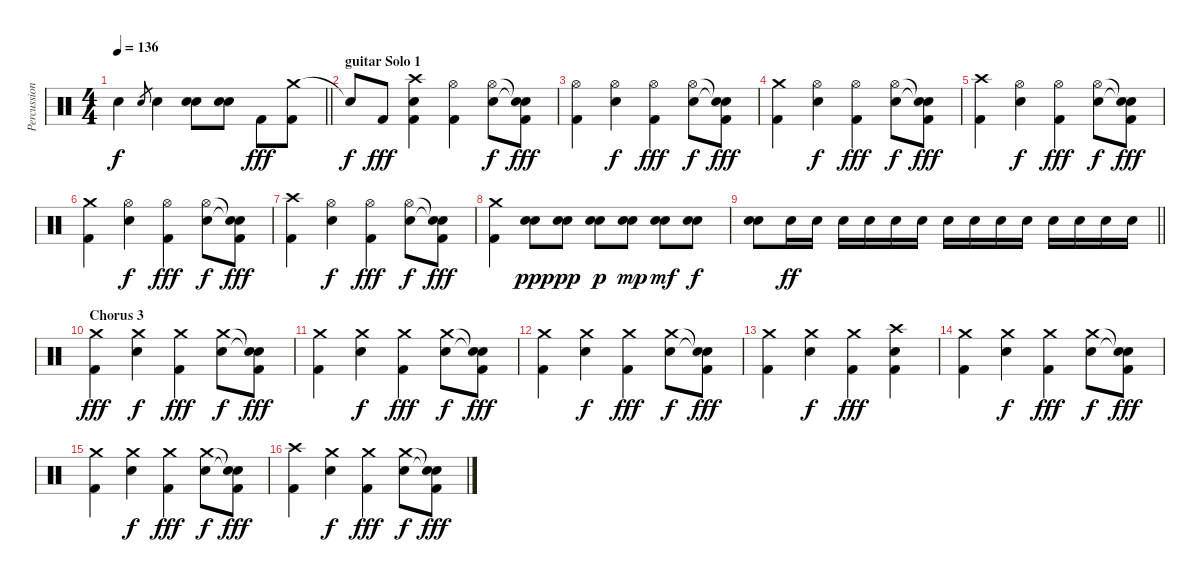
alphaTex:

\track ("Percussion" "Percussion") {instrument percussion}
\staff {score}
\articulation defaults
\ts (4 4)
\tempo 136
\clef neutral
\barLineRight lightlight
\ks c "Snare (hit)"{t}.4{dy f} "Electric Snare (hit)".8{gr} "Electric Snare (hit)".4
("Electric Snare (hit)" "Electric Snare (hit)").8 ("Electric Snare (hit)" "Electric Snare (hit)").8 "Kick (hit) 2".8{dy fff} ("Crash medium (hit)" "Kick (hit) 2").8 |
\section ("" "guitar Solo 1")
"Snare (hit)"{t}.8{dy f} "Kick (hit) 2".8{dy fff} ("Crash high (hit)" "Electric Snare (hit)" "Kick (hit) 2").4 ("Hi-Hat (open)" "Kick (hit) 2").4 ("Hi-Hat (open)" "Electric Snare (hit)").8{dy f} ("Snare (hit)"{t} "Snare (hit)"{t} "Kick (hit) 2").8{dy fff} |
("Hi-Hat (open)" "Kick (hit) 2").4 ("Hi-Hat (open)" "Electric Snare (hit)").4{dy f} ("Hi-Hat (open)" "Kick (hit) 2").4{dy fff} ("Hi-Hat (open)" "Electric Snare (hit)").8{dy f} ("Snare (hit)"{t} "Snare (hit)"{t} "Kick (hit) 2").8{dy fff} |
("Crash medium (hit)" "Kick (hit) 2").4 ("Hi-Hat (open)" "Electric Snare (hit)").4{dy f} ("Hi-Hat (open)" "Kick (hit) 2").4{dy fff} ("Hi-Hat (open)" "Electric Snare (hit)").8{dy f} ("Snare (hit)"{t} "Snare (hit)"{t} "Kick (hit) 2").8{dy fff} |
("Crash high (hit)" "Kick (hit) 2").4 ("Hi-Hat (open)" "Electric Snare (hit)").4{dy f} ("Hi-Hat (open)" "Kick (hit) 2").4{dy fff} ("Hi-Hat (open)" "Electric Snare (hit)").8{dy f} ("Snare (hit)"{t} "Snare (hit)"{t} "Kick (hit) 2").8{dy fff} |
("Crash medium (hit)" "Kick (hit) 2").4 ("Hi-Hat (open)" "Electric Snare (hit)").4{dy f} ("Hi-Hat (open)" "Kick (hit) 2").4{dy fff} ("Hi-Hat (open)" "Electric Snare (hit)").8{dy f} ("Snare (hit)"{t} "Snare (hit)"{t} "Kick (hit) 2").8{dy fff} |
("Crash high (hit)" "Kick (hit) 2").4 ("Hi-Hat (open)" "Electric Snare (hit)").4{dy f} ("Hi-Hat (open)" "Kick (hit) 2").4{dy fff} ("Hi-Hat (open)" "Electric Snare (hit)").8{dy f} ("Snare (hit)"{t} "Snare (hit)"{t} "Kick (hit) 2").8{dy fff} |
("Crash medium (hit)" "Kick (hit) 2").4 ("Electric Snare (hit)" "Electric Snare (hit)").8{dy ppp} ("Electric Snare (hit)" "Electric Snare (hit)").8{dy pp} ("Electric Snare (hit)" "Electric Snare (hit)").8{dy p} ("Electric Snare (hit)" "Electric Snare (hit)").8{dy mp} ("Electric Snare (hit)" "Electric Snare (hit)").8{dy mf} ("Electric Snare (hit)" "Electric Snare (hit)").8{dy f} |
\barLineRight lightlight
("Electric Snare (hit)" "Electric Snare (hit)").8 "Electric Snare (hit)".16{dy ff} "Electric Snare (hit)".16 "Electric Snare (hit)".16 "Electric Snare (hit)".16 "Electric Snare (hit)".16 "Electric Snare (hit)".16 "Electric Snare (hit)".16 "Electric Snare (hit)".16 "Electric Snare (hit)".16 "Electric Snare (hit)".16 "Electric Snare (hit)".16 "Electric Snare (hit)".16 "Electric Snare (hit)".16 "Electric Snare (hit)".16 |
\section ("" "Chorus 3")
("Crash medium (hit)" "Kick (hit) 2").4{dy fff} ("Crash medium (hit)" "Electric Snare (hit)").4{dy f} ("Crash medium (hit)" "Kick (hit) 2").4{dy fff} ("Crash medium (hit)" "Electric Snare (hit)").8{dy f} ("Snare (hit)"{t} "Snare (hit)"{t} "Kick (hit) 2").8{dy fff} |
("Crash medium (hit)" "Kick (hit) 2").4 ("Crash medium (hit)" "Electric Snare (hit)").4{dy f} ("Crash medium (hit)" "Kick (hit) 2").4{dy fff} ("Crash medium (hit)" "Electric Snare (hit)").8{dy f} ("Snare (hit)"{t} "Snare (hit)"{t} "Kick (hit) 2").8{dy fff} |
("Crash medium (hit)" "Kick (hit) 2").4 ("Crash medium (hit)" "Electric Snare (hit)").4{dy f} ("Crash medium (hit)" "Kick (hit) 2").4{dy fff} ("Crash medium (hit)" "Electric Snare (hit)").8{dy f} ("Snare (hit)"{t} "Snare (hit)"{t} "Kick (hit) 2").8{dy fff} |
("Crash medium (hit)" "Kick (hit) 2").4 ("Crash medium (hit)" "Electric Snare (hit)").4{dy f} ("Crash medium (hit)" "Kick (hit) 2").4{dy fff} ("Crash high (hit)" "Electric Snare (hit)" "Kick (hit) 2").4 |
("Crash medium (hit)" "Kick (hit) 2").4 ("Crash medium (hit)" "Electric Snare (hit)").4{dy f} ("Crash medium (hit)" "Kick (hit) 2").4{dy fff} ("Crash medium (hit)" "Electric Snare (hit)").8{dy f} ("Snare (hit)"{t} "Snare (hit)"{t} "Kick (hit) 2").8{dy fff} |
("Crash medium (hit)" "Kick (hit) 2").4 ("Crash medium (hit)" "Electric Snare (hit)").4{dy f} ("Crash medium (hit)" "Kick (hit) 2").4{dy fff} ("Crash medium (hit)" "Electric Snare (hit)").8{dy f} ("Snare (hit)"{t} "Snare (hit)"{t} "Kick (hit) 2").8{dy fff} |
("Crash high (hit)" "Kick (hit) 2").4 ("Crash medium (hit)" "Electric Snare (hit)").4{dy f} ("Crash medium (hit)" "Kick (hit) 2").4{dy fff} ("Crash medium (hit)" "Electric Snare (hit)").8{dy f} ("Snare (hit)"{t} "Snare (hit)"{t} "Kick (hit) 2").8{dy fff}
